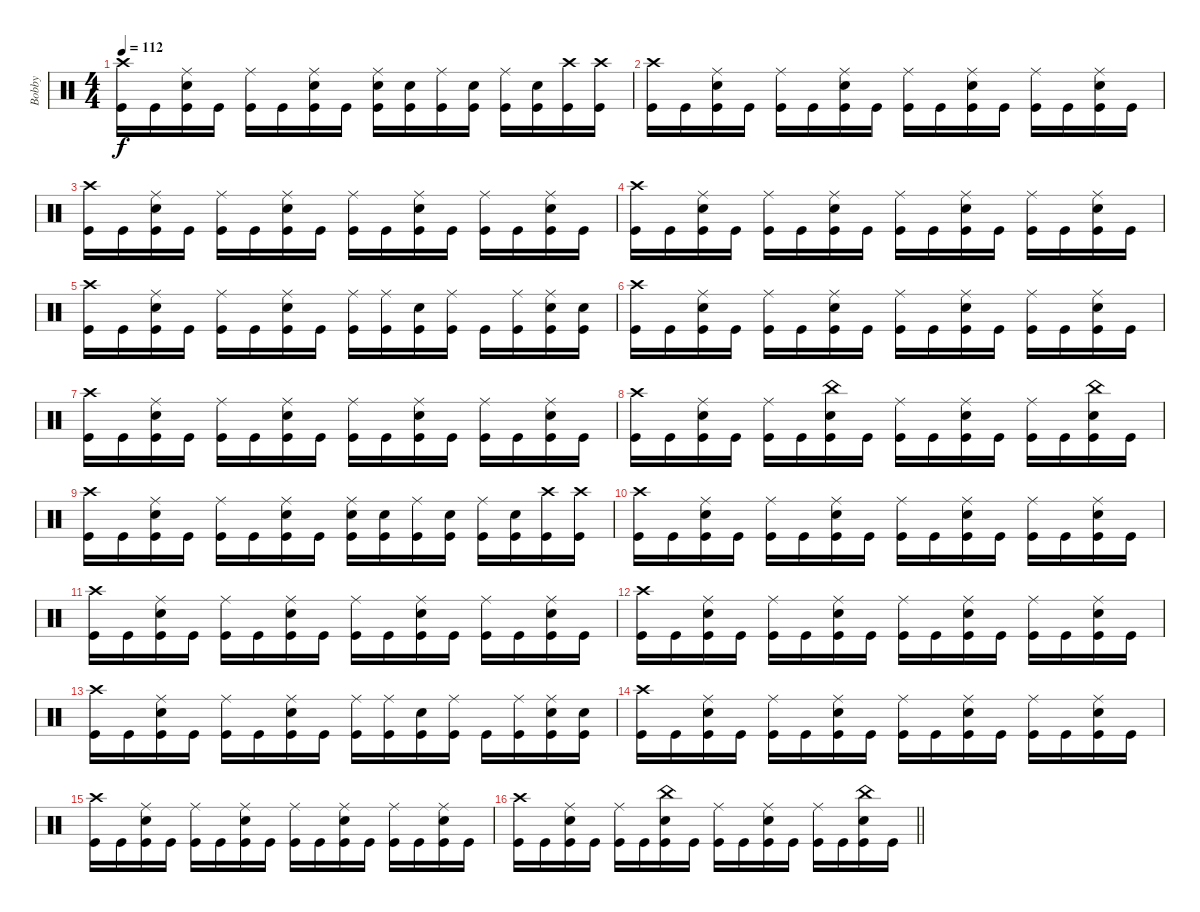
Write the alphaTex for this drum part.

\track ("Bobby" "Bobby") {instrument percussion}
\staff {score}
\articulation defaults
\ts (4 4)
\tempo 112
\clef neutral
\ks c
("Crash high (hit)" "Kick (hit)").16{dy f} "Kick (hit)".16 ("Ride (middle)" "Electric Snare (hit)" "Kick (hit)").16 "Kick (hit)".16 ("Ride (middle)" "Kick (hit)").16 "Kick (hit)".16 ("Ride (middle)" "Electric Snare (hit)" "Kick (hit)").16 "Kick (hit)".16 ("Ride (middle)" "Electric Snare (hit)" "Kick (hit)").16 ("Electric Snare (hit)" "Kick (hit)").16 ("Ride (middle)" "Kick (hit)").16 ("Electric Snare (hit)" "Kick (hit)").16 ("Ride (middle)" "Kick (hit)").16 ("Electric Snare (hit)" "Kick (hit)").16 ("Crash high (hit)" "Kick (hit)").16 ("Crash high (hit)" "Kick (hit)").16 |
("Crash high (hit)" "Kick (hit)").16 "Kick (hit)".16 ("Ride (middle)" "Electric Snare (hit)" "Kick (hit)").16 "Kick (hit)".16 ("Ride (middle)" "Kick (hit)").16 "Kick (hit)".16 ("Ride (middle)" "Electric Snare (hit)" "Kick (hit)").16 "Kick (hit)".16 ("Ride (middle)" "Kick (hit)").16 "Kick (hit)".16 ("Ride (middle)" "Electric Snare (hit)" "Kick (hit)").16 "Kick (hit)".16 ("Ride (middle)" "Kick (hit)").16 "Kick (hit)".16 ("Ride (middle)" "Electric Snare (hit)" "Kick (hit)").16 "Kick (hit)".16 |
("Crash high (hit)" "Kick (hit)").16 "Kick (hit)".16 ("Ride (middle)" "Electric Snare (hit)" "Kick (hit)").16 "Kick (hit)".16 ("Ride (middle)" "Kick (hit)").16 "Kick (hit)".16 ("Ride (middle)" "Electric Snare (hit)" "Kick (hit)").16 "Kick (hit)".16 ("Ride (middle)" "Kick (hit)").16 "Kick (hit)".16 ("Ride (middle)" "Electric Snare (hit)" "Kick (hit)").16 "Kick (hit)".16 ("Ride (middle)" "Kick (hit)").16 "Kick (hit)".16 ("Ride (middle)" "Electric Snare (hit)" "Kick (hit)").16 "Kick (hit)".16 |
("Crash high (hit)" "Kick (hit)").16 "Kick (hit)".16 ("Ride (middle)" "Electric Snare (hit)" "Kick (hit)").16 "Kick (hit)".16 ("Ride (middle)" "Kick (hit)").16 "Kick (hit)".16 ("Ride (middle)" "Electric Snare (hit)" "Kick (hit)").16 "Kick (hit)".16 ("Ride (middle)" "Kick (hit)").16 "Kick (hit)".16 ("Ride (middle)" "Electric Snare (hit)" "Kick (hit)").16 "Kick (hit)".16 ("Ride (middle)" "Kick (hit)").16 "Kick (hit)".16 ("Ride (middle)" "Electric Snare (hit)" "Kick (hit)").16 "Kick (hit)".16 |
("Crash high (hit)" "Kick (hit)").16 "Kick (hit)".16 ("Ride (middle)" "Electric Snare (hit)" "Kick (hit)").16 "Kick (hit)".16 ("Ride (middle)" "Kick (hit)").16 "Kick (hit)".16 ("Ride (middle)" "Electric Snare (hit)" "Kick (hit)").16 "Kick (hit)".16 ("Ride (middle)" "Kick (hit)").16 ("Ride (middle)" "Kick (hit)").16 ("Electric Snare (hit)" "Kick (hit)").16 ("Ride (middle)" "Kick (hit)").16 "Kick (hit)".16 ("Ride (middle)" "Kick (hit)").16 ("Ride (middle)" "Electric Snare (hit)" "Kick (hit)").16 ("Electric Snare (hit)" "Kick (hit)").16 |
("Crash high (hit)" "Kick (hit)").16 "Kick (hit)".16 ("Ride (middle)" "Electric Snare (hit)" "Kick (hit)").16 "Kick (hit)".16 ("Ride (middle)" "Kick (hit)").16 "Kick (hit)".16 ("Ride (middle)" "Electric Snare (hit)" "Kick (hit)").16 "Kick (hit)".16 ("Ride (middle)" "Kick (hit)").16 "Kick (hit)".16 ("Ride (middle)" "Electric Snare (hit)" "Kick (hit)").16 "Kick (hit)".16 ("Ride (middle)" "Kick (hit)").16 "Kick (hit)".16 ("Ride (middle)" "Electric Snare (hit)" "Kick (hit)").16 "Kick (hit)".16 |
("Crash high (hit)" "Kick (hit)").16 "Kick (hit)".16 ("Ride (middle)" "Electric Snare (hit)" "Kick (hit)").16 "Kick (hit)".16 ("Ride (middle)" "Kick (hit)").16 "Kick (hit)".16 ("Ride (middle)" "Electric Snare (hit)" "Kick (hit)").16 "Kick (hit)".16 ("Ride (middle)" "Kick (hit)").16 "Kick (hit)".16 ("Ride (middle)" "Electric Snare (hit)" "Kick (hit)").16 "Kick (hit)".16 ("Ride (middle)" "Kick (hit)").16 "Kick (hit)".16 ("Ride (middle)" "Electric Snare (hit)" "Kick (hit)").16 "Kick (hit)".16 |
("Crash high (hit)" "Kick (hit)").16 "Kick (hit)".16 ("Ride (middle)" "Electric Snare (hit)" "Kick (hit)").16 "Kick (hit)".16 ("Ride (middle)" "Kick (hit)").16 "Kick (hit)".16 ("China (hit)" "Electric Snare (hit)" "Kick (hit)").16 "Kick (hit)".16 ("Ride (middle)" "Kick (hit)").16 "Kick (hit)".16 ("Ride (middle)" "Electric Snare (hit)" "Kick (hit)").16 "Kick (hit)".16 ("Ride (middle)" "Kick (hit)").16 "Kick (hit)".16 ("China (hit)" "Electric Snare (hit)" "Kick (hit)").16 "Kick (hit)".16 |
("Crash high (hit)" "Kick (hit)").16 "Kick (hit)".16 ("Ride (middle)" "Electric Snare (hit)" "Kick (hit)").16 "Kick (hit)".16 ("Ride (middle)" "Kick (hit)").16 "Kick (hit)".16 ("Ride (middle)" "Electric Snare (hit)" "Kick (hit)").16 "Kick (hit)".16 ("Ride (middle)" "Electric Snare (hit)" "Kick (hit)").16 ("Electric Snare (hit)" "Kick (hit)").16 ("Ride (middle)" "Kick (hit)").16 ("Electric Snare (hit)" "Kick (hit)").16 ("Ride (middle)" "Kick (hit)").16 ("Electric Snare (hit)" "Kick (hit)").16 ("Crash high (hit)" "Kick (hit)").16 ("Crash high (hit)" "Kick (hit)").16 |
("Crash high (hit)" "Kick (hit)").16 "Kick (hit)".16 ("Ride (middle)" "Electric Snare (hit)" "Kick (hit)").16 "Kick (hit)".16 ("Ride (middle)" "Kick (hit)").16 "Kick (hit)".16 ("Ride (middle)" "Electric Snare (hit)" "Kick (hit)").16 "Kick (hit)".16 ("Ride (middle)" "Kick (hit)").16 "Kick (hit)".16 ("Ride (middle)" "Electric Snare (hit)" "Kick (hit)").16 "Kick (hit)".16 ("Ride (middle)" "Kick (hit)").16 "Kick (hit)".16 ("Ride (middle)" "Electric Snare (hit)" "Kick (hit)").16 "Kick (hit)".16 |
("Crash high (hit)" "Kick (hit)").16 "Kick (hit)".16 ("Ride (middle)" "Electric Snare (hit)" "Kick (hit)").16 "Kick (hit)".16 ("Ride (middle)" "Kick (hit)").16 "Kick (hit)".16 ("Ride (middle)" "Electric Snare (hit)" "Kick (hit)").16 "Kick (hit)".16 ("Ride (middle)" "Kick (hit)").16 "Kick (hit)".16 ("Ride (middle)" "Electric Snare (hit)" "Kick (hit)").16 "Kick (hit)".16 ("Ride (middle)" "Kick (hit)").16 "Kick (hit)".16 ("Ride (middle)" "Electric Snare (hit)" "Kick (hit)").16 "Kick (hit)".16 |
("Crash high (hit)" "Kick (hit)").16 "Kick (hit)".16 ("Ride (middle)" "Electric Snare (hit)" "Kick (hit)").16 "Kick (hit)".16 ("Ride (middle)" "Kick (hit)").16 "Kick (hit)".16 ("Ride (middle)" "Electric Snare (hit)" "Kick (hit)").16 "Kick (hit)".16 ("Ride (middle)" "Kick (hit)").16 "Kick (hit)".16 ("Ride (middle)" "Electric Snare (hit)" "Kick (hit)").16 "Kick (hit)".16 ("Ride (middle)" "Kick (hit)").16 "Kick (hit)".16 ("Ride (middle)" "Electric Snare (hit)" "Kick (hit)").16 "Kick (hit)".16 |
("Crash high (hit)" "Kick (hit)").16 "Kick (hit)".16 ("Ride (middle)" "Electric Snare (hit)" "Kick (hit)").16 "Kick (hit)".16 ("Ride (middle)" "Kick (hit)").16 "Kick (hit)".16 ("Ride (middle)" "Electric Snare (hit)" "Kick (hit)").16 "Kick (hit)".16 ("Ride (middle)" "Kick (hit)").16 ("Ride (middle)" "Kick (hit)").16 ("Electric Snare (hit)" "Kick (hit)").16 ("Ride (middle)" "Kick (hit)").16 "Kick (hit)".16 ("Ride (middle)" "Kick (hit)").16 ("Ride (middle)" "Electric Snare (hit)" "Kick (hit)").16 ("Electric Snare (hit)" "Kick (hit)").16 |
("Crash high (hit)" "Kick (hit)").16 "Kick (hit)".16 ("Ride (middle)" "Electric Snare (hit)" "Kick (hit)").16 "Kick (hit)".16 ("Ride (middle)" "Kick (hit)").16 "Kick (hit)".16 ("Ride (middle)" "Electric Snare (hit)" "Kick (hit)").16 "Kick (hit)".16 ("Ride (middle)" "Kick (hit)").16 "Kick (hit)".16 ("Ride (middle)" "Electric Snare (hit)" "Kick (hit)").16 "Kick (hit)".16 ("Ride (middle)" "Kick (hit)").16 "Kick (hit)".16 ("Ride (middle)" "Electric Snare (hit)" "Kick (hit)").16 "Kick (hit)".16 |
("Crash high (hit)" "Kick (hit)").16 "Kick (hit)".16 ("Ride (middle)" "Electric Snare (hit)" "Kick (hit)").16 "Kick (hit)".16 ("Ride (middle)" "Kick (hit)").16 "Kick (hit)".16 ("Ride (middle)" "Electric Snare (hit)" "Kick (hit)").16 "Kick (hit)".16 ("Ride (middle)" "Kick (hit)").16 "Kick (hit)".16 ("Ride (middle)" "Electric Snare (hit)" "Kick (hit)").16 "Kick (hit)".16 ("Ride (middle)" "Kick (hit)").16 "Kick (hit)".16 ("Ride (middle)" "Electric Snare (hit)" "Kick (hit)").16 "Kick (hit)".16 |
\barLineRight lightlight
("Crash high (hit)" "Kick (hit)").16 "Kick (hit)".16 ("Ride (middle)" "Electric Snare (hit)" "Kick (hit)").16 "Kick (hit)".16 ("Ride (middle)" "Kick (hit)").16 "Kick (hit)".16 ("China (hit)" "Electric Snare (hit)" "Kick (hit)").16 "Kick (hit)".16 ("Ride (middle)" "Kick (hit)").16 "Kick (hit)".16 ("Ride (middle)" "Electric Snare (hit)" "Kick (hit)").16 "Kick (hit)".16 ("Ride (middle)" "Kick (hit)").16 "Kick (hit)".16 ("China (hit)" "Electric Snare (hit)" "Kick (hit)").16 "Kick (hit)".16
